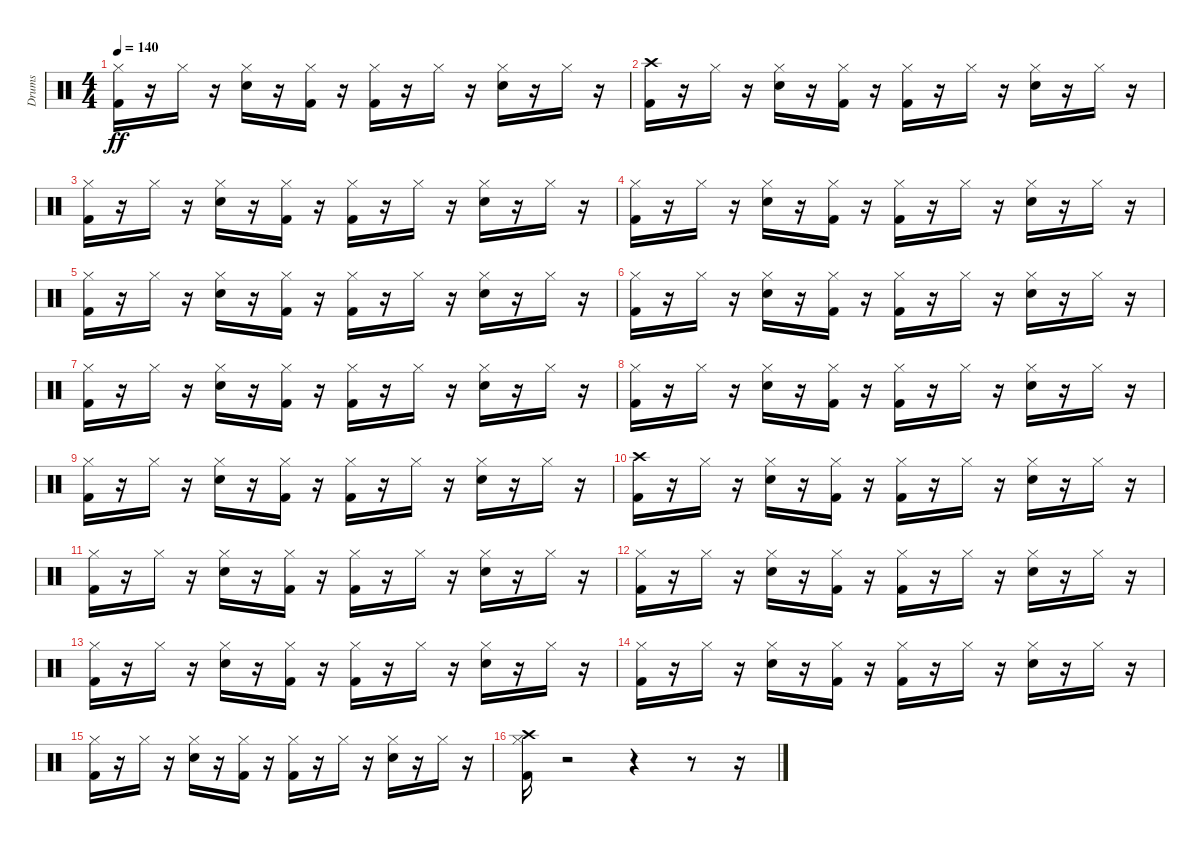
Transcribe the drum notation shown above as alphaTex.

\track ("Drums" "Drums") {instrument percussion}
\staff {score}
\articulation defaults
\ts (4 4)
\tempo 140
\clef neutral
\ks c
("Hi-Hat (closed)" "Kick (hit) 2").16{dy ff} r.16 "Hi-Hat (closed)".16 r.16 ("Hi-Hat (closed)" "Snare (hit) 2").16 r.16 ("Hi-Hat (closed)" "Kick (hit) 2").16 r.16 ("Hi-Hat (closed)" "Kick (hit) 2").16 r.16 "Hi-Hat (closed)".16 r.16 ("Hi-Hat (closed)" "Snare (hit) 2").16 r.16 "Hi-Hat (closed)".16 r.16 |
("Crash high (hit)" "Kick (hit) 2").16 r.16 "Hi-Hat (closed)".16 r.16 ("Hi-Hat (closed)" "Snare (hit) 2").16 r.16 ("Hi-Hat (closed)" "Kick (hit) 2").16 r.16 ("Hi-Hat (closed)" "Kick (hit) 2").16 r.16 "Hi-Hat (closed)".16 r.16 ("Hi-Hat (closed)" "Snare (hit) 2").16 r.16 "Hi-Hat (closed)".16 r.16 |
("Hi-Hat (closed)" "Kick (hit) 2").16 r.16 "Hi-Hat (closed)".16 r.16 ("Hi-Hat (closed)" "Snare (hit) 2").16 r.16 ("Hi-Hat (closed)" "Kick (hit) 2").16 r.16 ("Hi-Hat (closed)" "Kick (hit) 2").16 r.16 "Hi-Hat (closed)".16 r.16 ("Hi-Hat (closed)" "Snare (hit) 2").16 r.16 "Hi-Hat (closed)".16 r.16 |
("Hi-Hat (closed)" "Kick (hit) 2").16 r.16 "Hi-Hat (closed)".16 r.16 ("Hi-Hat (closed)" "Snare (hit) 2").16 r.16 ("Hi-Hat (closed)" "Kick (hit) 2").16 r.16 ("Hi-Hat (closed)" "Kick (hit) 2").16 r.16 "Hi-Hat (closed)".16 r.16 ("Hi-Hat (closed)" "Snare (hit) 2").16 r.16 "Hi-Hat (closed)".16 r.16 |
("Hi-Hat (closed)" "Kick (hit) 2").16 r.16 "Hi-Hat (closed)".16 r.16 ("Hi-Hat (closed)" "Snare (hit) 2").16 r.16 ("Hi-Hat (closed)" "Kick (hit) 2").16 r.16 ("Hi-Hat (closed)" "Kick (hit) 2").16 r.16 "Hi-Hat (closed)".16 r.16 ("Hi-Hat (closed)" "Snare (hit) 2").16 r.16 "Hi-Hat (closed)".16 r.16 |
("Hi-Hat (closed)" "Kick (hit) 2").16 r.16 "Hi-Hat (closed)".16 r.16 ("Hi-Hat (closed)" "Snare (hit) 2").16 r.16 ("Hi-Hat (closed)" "Kick (hit) 2").16 r.16 ("Hi-Hat (closed)" "Kick (hit) 2").16 r.16 "Hi-Hat (closed)".16 r.16 ("Hi-Hat (closed)" "Snare (hit) 2").16 r.16 "Hi-Hat (closed)".16 r.16 |
("Hi-Hat (closed)" "Kick (hit) 2").16 r.16 "Hi-Hat (closed)".16 r.16 ("Hi-Hat (closed)" "Snare (hit) 2").16 r.16 ("Hi-Hat (closed)" "Kick (hit) 2").16 r.16 ("Hi-Hat (closed)" "Kick (hit) 2").16 r.16 "Hi-Hat (closed)".16 r.16 ("Hi-Hat (closed)" "Snare (hit) 2").16 r.16 "Hi-Hat (closed)".16 r.16 |
("Hi-Hat (closed)" "Kick (hit) 2").16 r.16 "Hi-Hat (closed)".16 r.16 ("Hi-Hat (closed)" "Snare (hit) 2").16 r.16 ("Hi-Hat (closed)" "Kick (hit) 2").16 r.16 ("Hi-Hat (closed)" "Kick (hit) 2").16 r.16 "Hi-Hat (closed)".16 r.16 ("Hi-Hat (closed)" "Snare (hit) 2").16 r.16 "Hi-Hat (closed)".16 r.16 |
("Hi-Hat (closed)" "Kick (hit) 2").16 r.16 "Hi-Hat (closed)".16 r.16 ("Hi-Hat (closed)" "Snare (hit) 2").16 r.16 ("Hi-Hat (closed)" "Kick (hit) 2").16 r.16 ("Hi-Hat (closed)" "Kick (hit) 2").16 r.16 "Hi-Hat (closed)".16 r.16 ("Hi-Hat (closed)" "Snare (hit) 2").16 r.16 "Hi-Hat (closed)".16 r.16 |
("Crash high (hit)" "Kick (hit) 2").16 r.16 "Hi-Hat (closed)".16 r.16 ("Hi-Hat (closed)" "Snare (hit) 2").16 r.16 ("Hi-Hat (closed)" "Kick (hit) 2").16 r.16 ("Hi-Hat (closed)" "Kick (hit) 2").16 r.16 "Hi-Hat (closed)".16 r.16 ("Hi-Hat (closed)" "Snare (hit) 2").16 r.16 "Hi-Hat (closed)".16 r.16 |
("Hi-Hat (closed)" "Kick (hit) 2").16 r.16 "Hi-Hat (closed)".16 r.16 ("Hi-Hat (closed)" "Snare (hit) 2").16 r.16 ("Hi-Hat (closed)" "Kick (hit) 2").16 r.16 ("Hi-Hat (closed)" "Kick (hit) 2").16 r.16 "Hi-Hat (closed)".16 r.16 ("Hi-Hat (closed)" "Snare (hit) 2").16 r.16 "Hi-Hat (closed)".16 r.16 |
("Hi-Hat (closed)" "Kick (hit) 2").16 r.16 "Hi-Hat (closed)".16 r.16 ("Hi-Hat (closed)" "Snare (hit) 2").16 r.16 ("Hi-Hat (closed)" "Kick (hit) 2").16 r.16 ("Hi-Hat (closed)" "Kick (hit) 2").16 r.16 "Hi-Hat (closed)".16 r.16 ("Hi-Hat (closed)" "Snare (hit) 2").16 r.16 "Hi-Hat (closed)".16 r.16 |
("Hi-Hat (closed)" "Kick (hit) 2").16 r.16 "Hi-Hat (closed)".16 r.16 ("Hi-Hat (closed)" "Snare (hit) 2").16 r.16 ("Hi-Hat (closed)" "Kick (hit) 2").16 r.16 ("Hi-Hat (closed)" "Kick (hit) 2").16 r.16 "Hi-Hat (closed)".16 r.16 ("Hi-Hat (closed)" "Snare (hit) 2").16 r.16 "Hi-Hat (closed)".16 r.16 |
("Hi-Hat (closed)" "Kick (hit) 2").16 r.16 "Hi-Hat (closed)".16 r.16 ("Hi-Hat (closed)" "Snare (hit) 2").16 r.16 ("Hi-Hat (closed)" "Kick (hit) 2").16 r.16 ("Hi-Hat (closed)" "Kick (hit) 2").16 r.16 "Hi-Hat (closed)".16 r.16 ("Hi-Hat (closed)" "Snare (hit) 2").16 r.16 "Hi-Hat (closed)".16 r.16 |
("Hi-Hat (closed)" "Kick (hit) 2").16 r.16 "Hi-Hat (closed)".16 r.16 ("Hi-Hat (closed)" "Snare (hit) 2").16 r.16 ("Hi-Hat (closed)" "Kick (hit) 2").16 r.16 ("Hi-Hat (closed)" "Kick (hit) 2").16 r.16 "Hi-Hat (closed)".16 r.16 ("Hi-Hat (closed)" "Snare (hit) 2").16 r.16 "Hi-Hat (closed)".16 r.16 |
("Crash high (hit)" "Hi-Hat (closed)" "Kick (hit) 2").16 r.2 r.4 r.8 r.16
